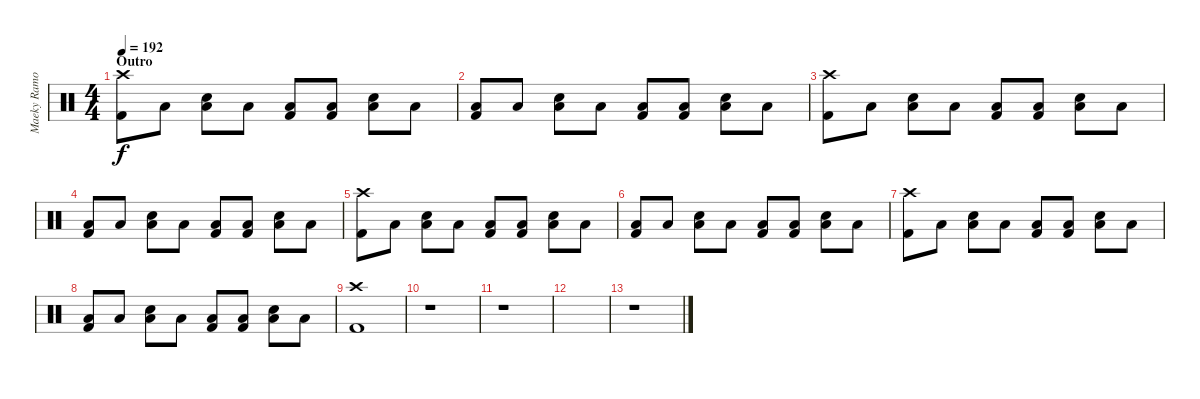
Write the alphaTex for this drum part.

\track ("Maeky Ramone" "Maeky Ramo") {instrument percussion}
\staff {score}
\articulation defaults
\ts (4 4)
\section ("" "Outro")
\tempo 192
\clef neutral
\ks c
("Crash high (hit)" "Kick (hit) 2").8{dy f} "Low Floor Tom (hit)".8 ("Low Floor Tom (hit)" "Snare (hit) 2").8 "Low Floor Tom (hit)".8 ("Low Floor Tom (hit)" "Kick (hit) 2").8 ("Low Floor Tom (hit)" "Kick (hit) 2").8 ("Low Floor Tom (hit)" "Snare (hit) 2").8 "Low Floor Tom (hit)".8 |
("Low Floor Tom (hit)" "Kick (hit) 2").8 "Low Floor Tom (hit)".8 ("Low Floor Tom (hit)" "Snare (hit) 2").8 "Low Floor Tom (hit)".8 ("Low Floor Tom (hit)" "Kick (hit) 2").8 ("Low Floor Tom (hit)" "Kick (hit) 2").8 ("Low Floor Tom (hit)" "Snare (hit) 2").8 "Low Floor Tom (hit)".8 |
("Crash high (hit)" "Kick (hit) 2").8 "Low Floor Tom (hit)".8 ("Low Floor Tom (hit)" "Snare (hit) 2").8 "Low Floor Tom (hit)".8 ("Low Floor Tom (hit)" "Kick (hit) 2").8 ("Low Floor Tom (hit)" "Kick (hit) 2").8 ("Low Floor Tom (hit)" "Snare (hit) 2").8 "Low Floor Tom (hit)".8 |
("Low Floor Tom (hit)" "Kick (hit) 2").8 "Low Floor Tom (hit)".8 ("Low Floor Tom (hit)" "Snare (hit) 2").8 "Low Floor Tom (hit)".8 ("Low Floor Tom (hit)" "Kick (hit) 2").8 ("Low Floor Tom (hit)" "Kick (hit) 2").8 ("Low Floor Tom (hit)" "Snare (hit) 2").8 "Low Floor Tom (hit)".8 |
("Crash high (hit)" "Kick (hit) 2").8 "Low Floor Tom (hit)".8 ("Low Floor Tom (hit)" "Snare (hit) 2").8 "Low Floor Tom (hit)".8 ("Low Floor Tom (hit)" "Kick (hit) 2").8 ("Low Floor Tom (hit)" "Kick (hit) 2").8 ("Low Floor Tom (hit)" "Snare (hit) 2").8 "Low Floor Tom (hit)".8 |
("Low Floor Tom (hit)" "Kick (hit) 2").8 "Low Floor Tom (hit)".8 ("Low Floor Tom (hit)" "Snare (hit) 2").8 "Low Floor Tom (hit)".8 ("Low Floor Tom (hit)" "Kick (hit) 2").8 ("Low Floor Tom (hit)" "Kick (hit) 2").8 ("Low Floor Tom (hit)" "Snare (hit) 2").8 "Low Floor Tom (hit)".8 |
("Crash high (hit)" "Kick (hit) 2").8 "Low Floor Tom (hit)".8 ("Low Floor Tom (hit)" "Snare (hit) 2").8 "Low Floor Tom (hit)".8 ("Low Floor Tom (hit)" "Kick (hit) 2").8 ("Low Floor Tom (hit)" "Kick (hit) 2").8 ("Low Floor Tom (hit)" "Snare (hit) 2").8 "Low Floor Tom (hit)".8 |
("Low Floor Tom (hit)" "Kick (hit) 2").8 "Low Floor Tom (hit)".8 ("Low Floor Tom (hit)" "Snare (hit) 2").8 "Low Floor Tom (hit)".8 ("Low Floor Tom (hit)" "Kick (hit) 2").8 ("Low Floor Tom (hit)" "Kick (hit) 2").8 ("Low Floor Tom (hit)" "Snare (hit) 2").8 "Low Floor Tom (hit)".8 |
("Crash high (hit)" "Kick (hit) 2").1 |
r.1 |
r.1 |
|
r.1
